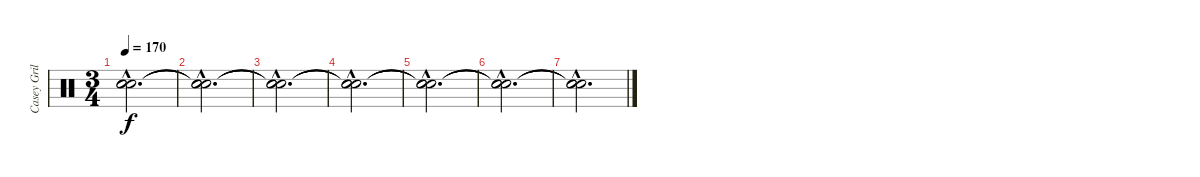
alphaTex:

\track ("Casey Grillo" "Casey Gril") {instrument percussion}
\staff {score}
\articulation defaults
\ts (3 4)
\tempo 170
\clef neutral
\ks c
("Snare (hit)"{hac t} "Snare (hit)"{hac t} "Snare (hit)"{hac t}).2{d dy f} |
("Snare (hit)"{hac t} "Snare (hit)"{hac t} "Snare (hit)"{hac t}).2{d} |
("Snare (hit)"{hac t} "Snare (hit)"{hac t} "Snare (hit)"{hac t}).2{d} |
("Snare (hit)"{hac t} "Snare (hit)"{hac t} "Snare (hit)"{hac t}).2{d} |
("Snare (hit)"{hac t} "Snare (hit)"{hac t} "Snare (hit)"{hac t}).2{d} |
("Snare (hit)"{hac t} "Snare (hit)"{hac t} "Snare (hit)"{hac t}).2{d} |
("Snare (hit)"{hac t} "Snare (hit)"{hac t} "Snare (hit)"{hac t}).2{d}
